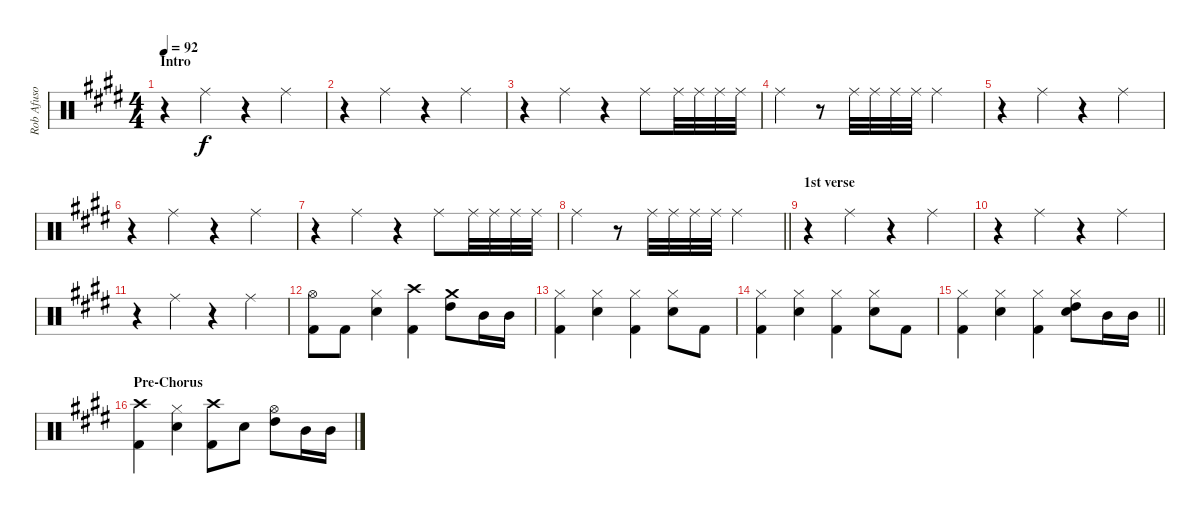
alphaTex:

\track ("Rob Afuso" "Rob Afuso") {instrument percussion}
\staff {score}
\articulation defaults
\ts (4 4)
\section ("" "Intro")
\tempo 92
\clef neutral
\ks e
r.4{dy f} "Ride (middle)".4 r.4 "Ride (middle)".4 |
r.4 "Ride (middle)".4 r.4 "Ride (middle)".4 |
r.4 "Ride (middle)".4 r.4 "Ride (middle)".8 "Ride (middle)".32 "Ride (middle)".32 "Ride (middle)".32 "Ride (middle)".32 |
"Ride (middle)".4 r.8 "Ride (middle)".32 "Ride (middle)".32 "Ride (middle)".32 "Ride (middle)".32 "Ride (middle)".2 |
r.4 "Ride (middle)".4 r.4 "Ride (middle)".4 |
r.4 "Ride (middle)".4 r.4 "Ride (middle)".4 |
r.4 "Ride (middle)".4 r.4 "Ride (middle)".8 "Ride (middle)".32 "Ride (middle)".32 "Ride (middle)".32 "Ride (middle)".32 |
\barLineRight lightlight "Ride (middle)".4
r.8 "Ride (middle)".32 "Ride (middle)".32 "Ride (middle)".32 "Ride (middle)".32 "Ride (middle)".2 |
\section ("" "1st verse")
r.4 "Ride (middle)".4 r.4 "Ride (middle)".4 |
r.4 "Ride (middle)".4 r.4 "Ride (middle)".4 |
r.4 "Ride (middle)".4 r.4 "Ride (middle)".4 |
("Hi-Hat (open)" "Kick (hit) 2").8 "Kick (hit) 2".8 ("Hi-Hat (closed)" "Snare (hit) 2").4 ("Crash high (hit)" "Kick (hit) 2").4 ("Crash medium (hit)" "High Tom (hit)").8 "Mid Tom (hit)".16 "Mid Tom (hit)".16 |
("Hi-Hat (closed)" "Kick (hit) 2").4 ("Hi-Hat (closed)" "Snare (hit) 2").4 ("Hi-Hat (closed)" "Kick (hit) 2").4 ("Hi-Hat (closed)" "Snare (hit) 2").8 "Kick (hit) 2".8 |
("Hi-Hat (closed)" "Kick (hit) 2").4 ("Hi-Hat (closed)" "Snare (hit) 2").4 ("Hi-Hat (closed)" "Kick (hit) 2").4 ("Hi-Hat (closed)" "Snare (hit) 2").8 "Kick (hit) 2".8 |
\barLineRight lightlight
("Hi-Hat (closed)" "Kick (hit) 2").4 ("Hi-Hat (closed)" "Snare (hit) 2").4 ("Hi-Hat (closed)" "Kick (hit) 2").4 ("Hi-Hat (closed)" "Snare (hit) 2" "High Tom (hit)").8 "Mid Tom (hit)".16 "Mid Tom (hit)".16 |
\section ("" "Pre-Chorus")
("Crash high (hit)" "Kick (hit) 2").4 ("Hi-Hat (closed)" "Snare (hit) 2").4 ("Crash high (hit)" "Kick (hit) 2").8 "Snare (hit) 2".8 ("Hi-Hat (open)" "High Tom (hit)").8 "Mid Tom (hit)".16 "Mid Tom (hit)".16
